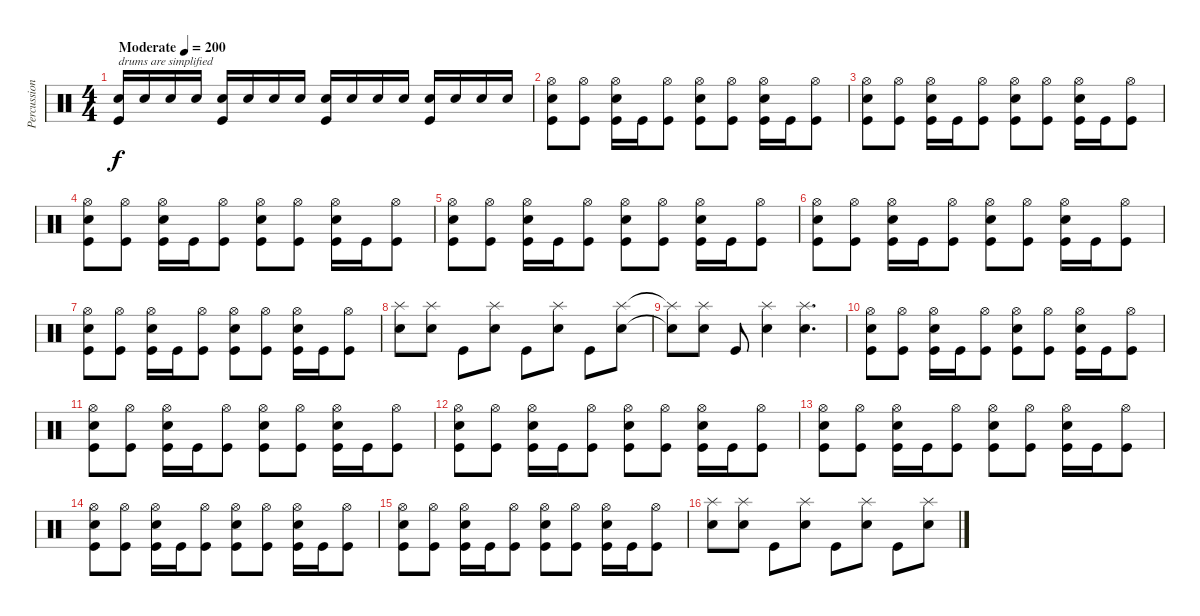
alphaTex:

\track ("Percussions" "Percussion") {instrument percussion}
\staff {score}
\articulation defaults
\ts (4 4)
\tempo (200 "Moderate")
\clef neutral
\ks c
("Electric Snare (hit)" "Kick (hit)").16{txt "drums are simplified" dy f} "Electric Snare (hit)".16 "Electric Snare (hit)".16 "Electric Snare (hit)".16 ("Electric Snare (hit)" "Kick (hit)").16 "Electric Snare (hit)".16 "Electric Snare (hit)".16 "Electric Snare (hit)".16 ("Electric Snare (hit)" "Kick (hit)").16 "Electric Snare (hit)".16 "Electric Snare (hit)".16 "Electric Snare (hit)".16 ("Electric Snare (hit)" "Kick (hit)").16 "Electric Snare (hit)".16 "Electric Snare (hit)".16 "Electric Snare (hit)".16 |
("Hi-Hat (open)" "Electric Snare (hit)" "Kick (hit)").8 ("Hi-Hat (open)" "Kick (hit)").8 ("Hi-Hat (open)" "Electric Snare (hit)" "Kick (hit)").16 "Kick (hit)".16 ("Hi-Hat (open)" "Kick (hit)").8 ("Hi-Hat (open)" "Electric Snare (hit)" "Kick (hit)").8 ("Hi-Hat (open)" "Kick (hit)").8 ("Hi-Hat (open)" "Electric Snare (hit)" "Kick (hit)").16 "Kick (hit)".16 ("Hi-Hat (open)" "Kick (hit)").8 |
("Hi-Hat (open)" "Electric Snare (hit)" "Kick (hit)").8 ("Hi-Hat (open)" "Kick (hit)").8 ("Hi-Hat (open)" "Electric Snare (hit)" "Kick (hit)").16 "Kick (hit)".16 ("Hi-Hat (open)" "Kick (hit)").8 ("Hi-Hat (open)" "Electric Snare (hit)" "Kick (hit)").8 ("Hi-Hat (open)" "Kick (hit)").8 ("Hi-Hat (open)" "Electric Snare (hit)" "Kick (hit)").16 "Kick (hit)".16 ("Hi-Hat (open)" "Kick (hit)").8 |
("Hi-Hat (open)" "Electric Snare (hit)" "Kick (hit)").8 ("Hi-Hat (open)" "Kick (hit)").8 ("Hi-Hat (open)" "Electric Snare (hit)" "Kick (hit)").16 "Kick (hit)".16 ("Hi-Hat (open)" "Kick (hit)").8 ("Hi-Hat (open)" "Electric Snare (hit)" "Kick (hit)").8 ("Hi-Hat (open)" "Kick (hit)").8 ("Hi-Hat (open)" "Electric Snare (hit)" "Kick (hit)").16 "Kick (hit)".16 ("Hi-Hat (open)" "Kick (hit)").8 |
("Hi-Hat (open)" "Electric Snare (hit)" "Kick (hit)").8 ("Hi-Hat (open)" "Kick (hit)").8 ("Hi-Hat (open)" "Electric Snare (hit)" "Kick (hit)").16 "Kick (hit)".16 ("Hi-Hat (open)" "Kick (hit)").8 ("Hi-Hat (open)" "Electric Snare (hit)" "Kick (hit)").8 ("Hi-Hat (open)" "Kick (hit)").8 ("Hi-Hat (open)" "Electric Snare (hit)" "Kick (hit)").16 "Kick (hit)".16 ("Hi-Hat (open)" "Kick (hit)").8 |
("Hi-Hat (open)" "Electric Snare (hit)" "Kick (hit)").8 ("Hi-Hat (open)" "Kick (hit)").8 ("Hi-Hat (open)" "Electric Snare (hit)" "Kick (hit)").16 "Kick (hit)".16 ("Hi-Hat (open)" "Kick (hit)").8 ("Hi-Hat (open)" "Electric Snare (hit)" "Kick (hit)").8 ("Hi-Hat (open)" "Kick (hit)").8 ("Hi-Hat (open)" "Electric Snare (hit)" "Kick (hit)").16 "Kick (hit)".16 ("Hi-Hat (open)" "Kick (hit)").8 |
("Hi-Hat (open)" "Electric Snare (hit)" "Kick (hit)").8 ("Hi-Hat (open)" "Kick (hit)").8 ("Hi-Hat (open)" "Electric Snare (hit)" "Kick (hit)").16 "Kick (hit)".16 ("Hi-Hat (open)" "Kick (hit)").8 ("Hi-Hat (open)" "Electric Snare (hit)" "Kick (hit)").8 ("Hi-Hat (open)" "Kick (hit)").8 ("Hi-Hat (open)" "Electric Snare (hit)" "Kick (hit)").16 "Kick (hit)".16 ("Hi-Hat (open)" "Kick (hit)").8 |
("Splash (hit)" "Electric Snare (hit)").8 ("Splash (hit)" "Electric Snare (hit)").8 "Kick (hit)".8 ("Splash (hit)" "Electric Snare (hit)").8 "Kick (hit)".8 ("Splash (hit)" "Electric Snare (hit)").8 "Kick (hit)".8 ("Splash (hit)" "Electric Snare (hit)").8 |
("Splash (hit)"{t} "Electric Snare (hit)"{t}).8 ("Splash (hit)" "Electric Snare (hit)").8 "Kick (hit)".8 ("Splash (hit)" "Electric Snare (hit)").4 ("Splash (hit)" "Electric Snare (hit)").4{d} |
("Hi-Hat (open)" "Electric Snare (hit)" "Kick (hit)").8 ("Hi-Hat (open)" "Kick (hit)").8 ("Hi-Hat (open)" "Electric Snare (hit)" "Kick (hit)").16 "Kick (hit)".16 ("Hi-Hat (open)" "Kick (hit)").8 ("Hi-Hat (open)" "Electric Snare (hit)" "Kick (hit)").8 ("Hi-Hat (open)" "Kick (hit)").8 ("Hi-Hat (open)" "Electric Snare (hit)" "Kick (hit)").16 "Kick (hit)".16 ("Hi-Hat (open)" "Kick (hit)").8 |
("Hi-Hat (open)" "Electric Snare (hit)" "Kick (hit)").8 ("Hi-Hat (open)" "Kick (hit)").8 ("Hi-Hat (open)" "Electric Snare (hit)" "Kick (hit)").16 "Kick (hit)".16 ("Hi-Hat (open)" "Kick (hit)").8 ("Hi-Hat (open)" "Electric Snare (hit)" "Kick (hit)").8 ("Hi-Hat (open)" "Kick (hit)").8 ("Hi-Hat (open)" "Electric Snare (hit)" "Kick (hit)").16 "Kick (hit)".16 ("Hi-Hat (open)" "Kick (hit)").8 |
("Hi-Hat (open)" "Electric Snare (hit)" "Kick (hit)").8 ("Hi-Hat (open)" "Kick (hit)").8 ("Hi-Hat (open)" "Electric Snare (hit)" "Kick (hit)").16 "Kick (hit)".16 ("Hi-Hat (open)" "Kick (hit)").8 ("Hi-Hat (open)" "Electric Snare (hit)" "Kick (hit)").8 ("Hi-Hat (open)" "Kick (hit)").8 ("Hi-Hat (open)" "Electric Snare (hit)" "Kick (hit)").16 "Kick (hit)".16 ("Hi-Hat (open)" "Kick (hit)").8 |
("Hi-Hat (open)" "Electric Snare (hit)" "Kick (hit)").8 ("Hi-Hat (open)" "Kick (hit)").8 ("Hi-Hat (open)" "Electric Snare (hit)" "Kick (hit)").16 "Kick (hit)".16 ("Hi-Hat (open)" "Kick (hit)").8 ("Hi-Hat (open)" "Electric Snare (hit)" "Kick (hit)").8 ("Hi-Hat (open)" "Kick (hit)").8 ("Hi-Hat (open)" "Electric Snare (hit)" "Kick (hit)").16 "Kick (hit)".16 ("Hi-Hat (open)" "Kick (hit)").8 |
("Hi-Hat (open)" "Electric Snare (hit)" "Kick (hit)").8 ("Hi-Hat (open)" "Kick (hit)").8 ("Hi-Hat (open)" "Electric Snare (hit)" "Kick (hit)").16 "Kick (hit)".16 ("Hi-Hat (open)" "Kick (hit)").8 ("Hi-Hat (open)" "Electric Snare (hit)" "Kick (hit)").8 ("Hi-Hat (open)" "Kick (hit)").8 ("Hi-Hat (open)" "Electric Snare (hit)" "Kick (hit)").16 "Kick (hit)".16 ("Hi-Hat (open)" "Kick (hit)").8 |
("Hi-Hat (open)" "Electric Snare (hit)" "Kick (hit)").8 ("Hi-Hat (open)" "Kick (hit)").8 ("Hi-Hat (open)" "Electric Snare (hit)" "Kick (hit)").16 "Kick (hit)".16 ("Hi-Hat (open)" "Kick (hit)").8 ("Hi-Hat (open)" "Electric Snare (hit)" "Kick (hit)").8 ("Hi-Hat (open)" "Kick (hit)").8 ("Hi-Hat (open)" "Electric Snare (hit)" "Kick (hit)").16 "Kick (hit)".16 ("Hi-Hat (open)" "Kick (hit)").8 |
("Splash (hit)" "Electric Snare (hit)").8 ("Splash (hit)" "Electric Snare (hit)").8 "Kick (hit)".8 ("Splash (hit)" "Electric Snare (hit)").8 "Kick (hit)".8 ("Splash (hit)" "Electric Snare (hit)").8 "Kick (hit)".8 ("Splash (hit)" "Electric Snare (hit)").8
